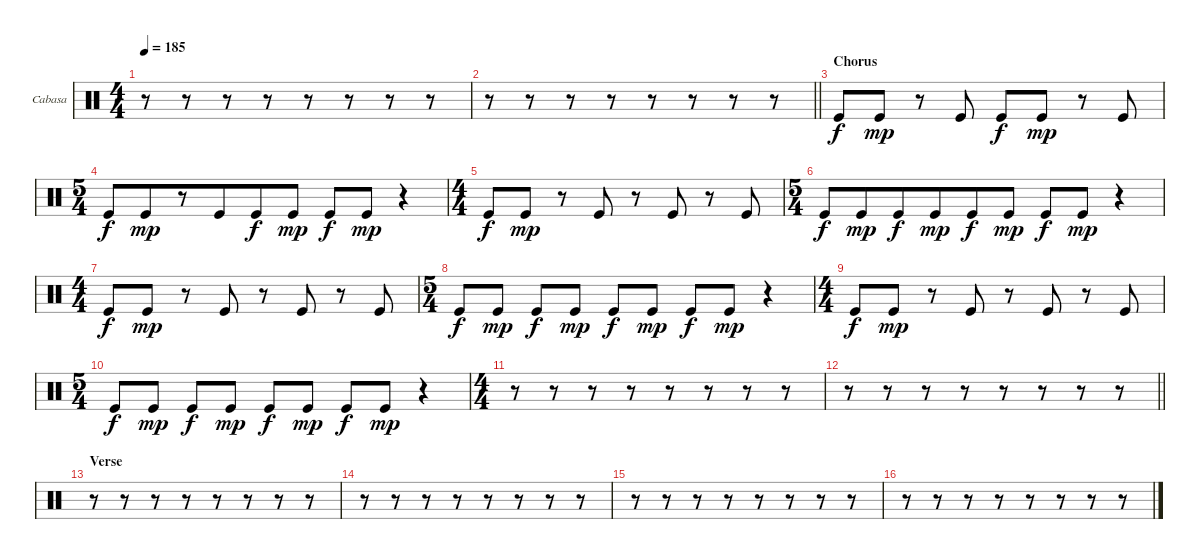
\bracketExtendMode groupsimilarinstruments
\firstSystemTrackNameOrientation horizontal
\otherSystemsTrackNameOrientation horizontal
\track ("Cabasa" "Cabasa") {instrument percussion}
\staff {score}
\articulation defaults
\ts (4 4)
\tempo 185
\clef neutral
\ks c
r.8{dy f} r.8 r.8 r.8 r.8 r.8 r.8 r.8 |
\barLineRight lightlight
r.8 r.8 r.8 r.8 r.8 r.8 r.8 r.8 |
\section ("" "Chorus")
"Kick (hit)".8 "Kick (hit)".8{dy mp} r.8 "Kick (hit)".8 "Kick (hit)".8{dy f} "Kick (hit)".8{dy mp} r.8 "Kick (hit)".8 |
\ts (5 4)
\beaming (8 6 4)
"Kick (hit)".8{dy f} "Kick (hit)".8{dy mp} r.8 "Kick (hit)".8 "Kick (hit)".8{dy f} "Kick (hit)".8{dy mp} "Kick (hit)".8{dy f} "Kick (hit)".8{dy mp} r.4 |
\ts (4 4)
\beaming (8 2 2 2 2)
"Kick (hit)".8{dy f} "Kick (hit)".8{dy mp} r.8 "Kick (hit)".8 r.8 "Kick (hit)".8 r.8 "Kick (hit)".8 |
\ts (5 4)
\beaming (8 6 4)
"Kick (hit)".8{dy f} "Kick (hit)".8{dy mp} "Kick (hit)".8{dy f} "Kick (hit)".8{dy mp} "Kick (hit)".8{dy f} "Kick (hit)".8{dy mp} "Kick (hit)".8{dy f} "Kick (hit)".8{dy mp} r.4 |
\ts (4 4)
\beaming (8 2 2 2 2)
"Kick (hit)".8{dy f} "Kick (hit)".8{dy mp} r.8 "Kick (hit)".8 r.8 "Kick (hit)".8 r.8 "Kick (hit)".8 |
\ts (5 4)
\beaming (8 2 2 2 4)
"Kick (hit)".8{dy f} "Kick (hit)".8{dy mp} "Kick (hit)".8{dy f} "Kick (hit)".8{dy mp} "Kick (hit)".8{dy f} "Kick (hit)".8{dy mp} "Kick (hit)".8{dy f} "Kick (hit)".8{dy mp} r.4 |
\ts (4 4)
\beaming (8 2 2 2 2)
"Kick (hit)".8{dy f} "Kick (hit)".8{dy mp} r.8 "Kick (hit)".8 r.8 "Kick (hit)".8 r.8 "Kick (hit)".8 |
\ts (5 4)
\beaming (8 2 2 2 4)
"Kick (hit)".8{dy f} "Kick (hit)".8{dy mp} "Kick (hit)".8{dy f} "Kick (hit)".8{dy mp} "Kick (hit)".8{dy f} "Kick (hit)".8{dy mp} "Kick (hit)".8{dy f} "Kick (hit)".8{dy mp} r.4 |
\ts (4 4)
\beaming (8 2 2 2 2)
r.8 r.8 r.8 r.8 r.8 r.8 r.8 r.8 |
\barLineRight lightlight
r.8 r.8 r.8 r.8 r.8 r.8 r.8 r.8 |
\section ("" "Verse")
r.8 r.8 r.8 r.8 r.8 r.8 r.8 r.8 |
r.8 r.8 r.8 r.8 r.8 r.8 r.8 r.8 |
r.8 r.8 r.8 r.8 r.8 r.8 r.8 r.8 |
r.8 r.8 r.8 r.8 r.8 r.8 r.8 r.8
